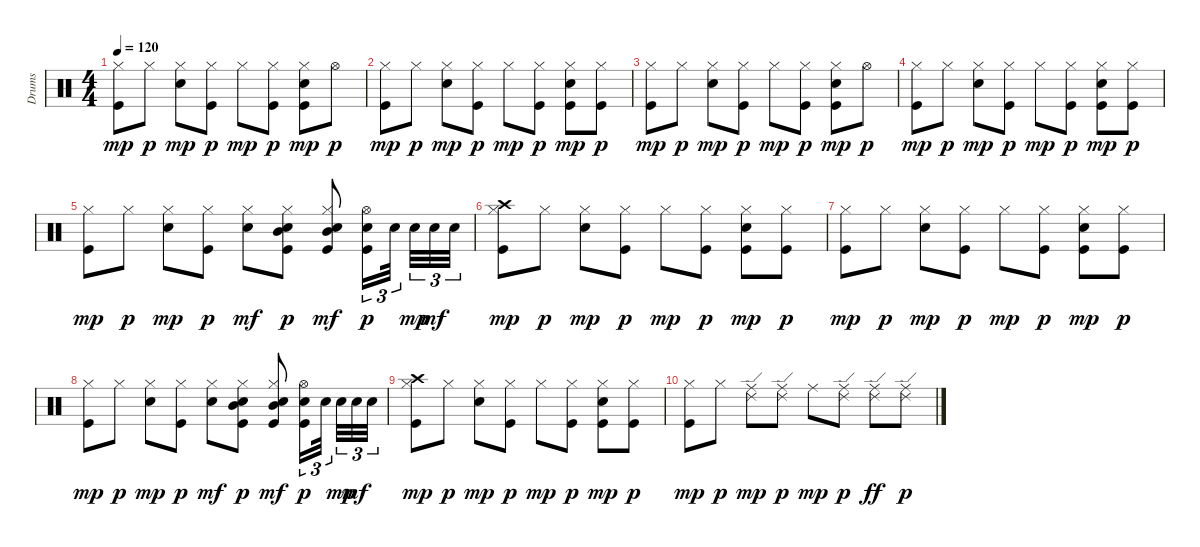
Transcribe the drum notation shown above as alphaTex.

\track ("Drums" "Drums") {instrument percussion}
\staff {score}
\articulation defaults
\ts (4 4)
\tempo 120
\clef neutral
\ks c
("Kick (hit)" "Hi-Hat (closed)").8{dy mp} "Hi-Hat (closed)".8{dy p} ("Electric Snare (hit)" "Hi-Hat (closed)").8{dy mp} ("Kick (hit)" "Hi-Hat (closed)").8{dy p} "Hi-Hat (closed)".8{dy mp} ("Kick (hit)" "Hi-Hat (closed)").8{dy p} ("Kick (hit)" "Electric Snare (hit)" "Hi-Hat (closed)").8{dy mp} "Hi-Hat (open)".8{dy p} |
("Kick (hit)" "Hi-Hat (closed)").8{dy mp} "Hi-Hat (closed)".8{dy p} ("Electric Snare (hit)" "Hi-Hat (closed)").8{dy mp} ("Kick (hit)" "Hi-Hat (closed)").8{dy p} "Hi-Hat (closed)".8{dy mp} ("Kick (hit)" "Hi-Hat (closed)").8{dy p} ("Kick (hit)" "Electric Snare (hit)" "Hi-Hat (closed)").8{dy mp} ("Kick (hit)" "Hi-Hat (closed)").8{dy p} |
("Kick (hit)" "Hi-Hat (closed)").8{dy mp} "Hi-Hat (closed)".8{dy p} ("Electric Snare (hit)" "Hi-Hat (closed)").8{dy mp} ("Kick (hit)" "Hi-Hat (closed)").8{dy p} "Hi-Hat (closed)".8{dy mp} ("Kick (hit)" "Hi-Hat (closed)").8{dy p} ("Kick (hit)" "Electric Snare (hit)" "Hi-Hat (closed)").8{dy mp} "Hi-Hat (open)".8{dy p} |
("Kick (hit)" "Hi-Hat (closed)").8{dy mp} "Hi-Hat (closed)".8{dy p} ("Electric Snare (hit)" "Hi-Hat (closed)").8{dy mp} ("Kick (hit)" "Hi-Hat (closed)").8{dy p} "Hi-Hat (closed)".8{dy mp} ("Kick (hit)" "Hi-Hat (closed)").8{dy p} ("Kick (hit)" "Electric Snare (hit)" "Hi-Hat (closed)").8{dy mp} ("Kick (hit)" "Hi-Hat (closed)").8{dy p} |
("Kick (hit)" "Hi-Hat (closed)").8{dy mp} "Hi-Hat (closed)".8{dy p} ("Electric Snare (hit)" "Hi-Hat (closed)").8{dy mp} ("Kick (hit)" "Hi-Hat (closed)").8{dy p} ("Hi-Hat (closed)" "Electric Snare (hit)").8{dy mf} ("Kick (hit)" "Electric Snare (hit)" "Hi-Hat (closed)" "Mid Tom (hit)").8{dy p} ("Kick (hit)" "Electric Snare (hit)" "Hi-Hat (closed)" "Mid Tom (hit)").8{dy mf} ("Kick (hit)" "Electric Snare (hit)" "Hi-Hat (open)").16{tu (3 2) dy p} "Electric Snare (hit)".32{tu (3 2) beam splitsecondary} "Electric Snare (hit)".32{tu (3 2) dy mp} "Electric Snare (hit)".32{tu (3 2) dy mf} "Electric Snare (hit)".32{tu (3 2)} |
("Kick (hit)" "Hi-Hat (closed)" "Crash high (hit)").8{dy mp} "Hi-Hat (closed)".8{dy p} ("Electric Snare (hit)" "Hi-Hat (closed)").8{dy mp} ("Kick (hit)" "Hi-Hat (closed)").8{dy p} "Hi-Hat (closed)".8{dy mp} ("Kick (hit)" "Hi-Hat (closed)").8{dy p} ("Kick (hit)" "Electric Snare (hit)" "Hi-Hat (closed)").8{dy mp} ("Kick (hit)" "Hi-Hat (closed)").8{dy p} |
("Kick (hit)" "Hi-Hat (closed)").8{dy mp} "Hi-Hat (closed)".8{dy p} ("Electric Snare (hit)" "Hi-Hat (closed)").8{dy mp} ("Kick (hit)" "Hi-Hat (closed)").8{dy p} "Hi-Hat (closed)".8{dy mp} ("Kick (hit)" "Hi-Hat (closed)").8{dy p} ("Kick (hit)" "Electric Snare (hit)" "Hi-Hat (closed)").8{dy mp} ("Kick (hit)" "Hi-Hat (closed)").8{dy p} |
("Kick (hit)" "Hi-Hat (closed)").8{dy mp} "Hi-Hat (closed)".8{dy p} ("Electric Snare (hit)" "Hi-Hat (closed)").8{dy mp} ("Kick (hit)" "Hi-Hat (closed)").8{dy p} ("Hi-Hat (closed)" "Electric Snare (hit)").8{dy mf} ("Kick (hit)" "Electric Snare (hit)" "Hi-Hat (closed)" "Mid Tom (hit)").8{dy p} ("Kick (hit)" "Electric Snare (hit)" "Hi-Hat (closed)" "Mid Tom (hit)").8{dy mf} ("Kick (hit)" "Electric Snare (hit)" "Hi-Hat (open)").16{tu (3 2) dy p} "Electric Snare (hit)".32{tu (3 2) beam splitsecondary} "Electric Snare (hit)".32{tu (3 2) dy mp} "Electric Snare (hit)".32{tu (3 2) dy mf} "Electric Snare (hit)".32{tu (3 2)} |
("Kick (hit)" "Hi-Hat (closed)" "Crash high (hit)").8{dy mp} "Hi-Hat (closed)".8{dy p} ("Electric Snare (hit)" "Hi-Hat (closed)").8{dy mp} ("Kick (hit)" "Hi-Hat (closed)").8{dy p} "Hi-Hat (closed)".8{dy mp} ("Kick (hit)" "Hi-Hat (closed)").8{dy p} ("Kick (hit)" "Electric Snare (hit)" "Hi-Hat (closed)").8{dy mp} ("Kick (hit)" "Hi-Hat (closed)").8{dy p} |
("Kick (hit)" "Hi-Hat (closed)").8{dy mp} "Hi-Hat (closed)".8{dy p} ("Ride (middle)" "Ride (edge) 2").8{dy mp} ("Ride (middle)" "Ride (edge) 2").8{dy p} "Ride (middle)".8{dy mp} ("Ride (middle)" "Ride (edge) 2").8{dy p} ("Ride (middle)" "Ride (edge) 2").8{dy ff} ("Ride (middle)" "Ride (edge) 2").8{dy p}
